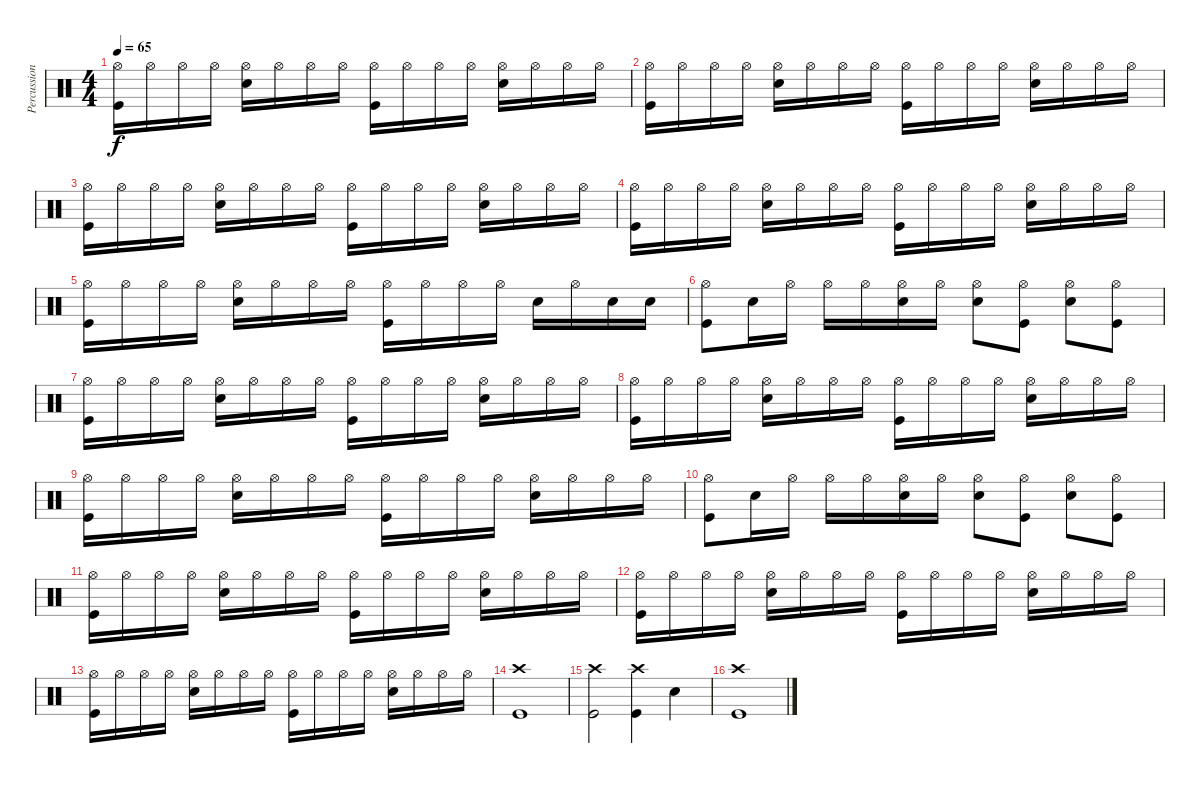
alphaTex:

\track ("Percussion" "Percussion") {instrument percussion}
\staff {score}
\articulation defaults
\ts (4 4)
\tempo 65
\clef neutral
\ks c
("Hi-Hat (open)" "Kick (hit)").16{dy f} "Hi-Hat (open)".16 "Hi-Hat (open)".16 "Hi-Hat (open)".16 ("Hi-Hat (open)" "Snare (hit) 2").16 "Hi-Hat (open)".16 "Hi-Hat (open)".16 "Hi-Hat (open)".16 ("Hi-Hat (open)" "Kick (hit)").16 "Hi-Hat (open)".16 "Hi-Hat (open)".16 "Hi-Hat (open)".16 ("Hi-Hat (open)" "Snare (hit) 2").16 "Hi-Hat (open)".16 "Hi-Hat (open)".16 "Hi-Hat (open)".16 |
("Hi-Hat (open)" "Kick (hit)").16 "Hi-Hat (open)".16 "Hi-Hat (open)".16 "Hi-Hat (open)".16 ("Hi-Hat (open)" "Snare (hit) 2").16 "Hi-Hat (open)".16 "Hi-Hat (open)".16 "Hi-Hat (open)".16 ("Hi-Hat (open)" "Kick (hit)").16 "Hi-Hat (open)".16 "Hi-Hat (open)".16 "Hi-Hat (open)".16 ("Hi-Hat (open)" "Snare (hit) 2").16 "Hi-Hat (open)".16 "Hi-Hat (open)".16 "Hi-Hat (open)".16 |
("Hi-Hat (open)" "Kick (hit)").16 "Hi-Hat (open)".16 "Hi-Hat (open)".16 "Hi-Hat (open)".16 ("Hi-Hat (open)" "Snare (hit) 2").16 "Hi-Hat (open)".16 "Hi-Hat (open)".16 "Hi-Hat (open)".16 ("Hi-Hat (open)" "Kick (hit)").16 "Hi-Hat (open)".16 "Hi-Hat (open)".16 "Hi-Hat (open)".16 ("Hi-Hat (open)" "Snare (hit) 2").16 "Hi-Hat (open)".16 "Hi-Hat (open)".16 "Hi-Hat (open)".16 |
("Hi-Hat (open)" "Kick (hit)").16 "Hi-Hat (open)".16 "Hi-Hat (open)".16 "Hi-Hat (open)".16 ("Hi-Hat (open)" "Snare (hit) 2").16 "Hi-Hat (open)".16 "Hi-Hat (open)".16 "Hi-Hat (open)".16 ("Hi-Hat (open)" "Kick (hit)").16 "Hi-Hat (open)".16 "Hi-Hat (open)".16 "Hi-Hat (open)".16 ("Hi-Hat (open)" "Snare (hit) 2").16 "Hi-Hat (open)".16 "Hi-Hat (open)".16 "Hi-Hat (open)".16 |
("Hi-Hat (open)" "Kick (hit)").16 "Hi-Hat (open)".16 "Hi-Hat (open)".16 "Hi-Hat (open)".16 ("Hi-Hat (open)" "Snare (hit) 2").16 "Hi-Hat (open)".16 "Hi-Hat (open)".16 "Hi-Hat (open)".16 ("Hi-Hat (open)" "Kick (hit)").16 "Hi-Hat (open)".16 "Hi-Hat (open)".16 "Hi-Hat (open)".16 "Snare (hit) 2".16 "Hi-Hat (open)".16 "Snare (hit) 2".16 "Snare (hit) 2".16 |
("Hi-Hat (open)" "Kick (hit)").8 "Snare (hit) 2".16 "Hi-Hat (open)".16 "Hi-Hat (open)".16 "Hi-Hat (open)".16 ("Hi-Hat (open)" "Snare (hit) 2").16 "Hi-Hat (open)".16 ("Hi-Hat (open)" "Snare (hit) 2").8 ("Hi-Hat (open)" "Kick (hit)").8 ("Hi-Hat (open)" "Snare (hit) 2").8 ("Hi-Hat (open)" "Kick (hit)").8 |
("Hi-Hat (open)" "Kick (hit)").16 "Hi-Hat (open)".16 "Hi-Hat (open)".16 "Hi-Hat (open)".16 ("Hi-Hat (open)" "Snare (hit) 2").16 "Hi-Hat (open)".16 "Hi-Hat (open)".16 "Hi-Hat (open)".16 ("Hi-Hat (open)" "Kick (hit)").16 "Hi-Hat (open)".16 "Hi-Hat (open)".16 "Hi-Hat (open)".16 ("Hi-Hat (open)" "Snare (hit) 2").16 "Hi-Hat (open)".16 "Hi-Hat (open)".16 "Hi-Hat (open)".16 |
("Hi-Hat (open)" "Kick (hit)").16 "Hi-Hat (open)".16 "Hi-Hat (open)".16 "Hi-Hat (open)".16 ("Hi-Hat (open)" "Snare (hit) 2").16 "Hi-Hat (open)".16 "Hi-Hat (open)".16 "Hi-Hat (open)".16 ("Hi-Hat (open)" "Kick (hit)").16 "Hi-Hat (open)".16 "Hi-Hat (open)".16 "Hi-Hat (open)".16 ("Hi-Hat (open)" "Snare (hit) 2").16 "Hi-Hat (open)".16 "Hi-Hat (open)".16 "Hi-Hat (open)".16 |
("Hi-Hat (open)" "Kick (hit)").16 "Hi-Hat (open)".16 "Hi-Hat (open)".16 "Hi-Hat (open)".16 ("Hi-Hat (open)" "Snare (hit) 2").16 "Hi-Hat (open)".16 "Hi-Hat (open)".16 "Hi-Hat (open)".16 ("Hi-Hat (open)" "Kick (hit)").16 "Hi-Hat (open)".16 "Hi-Hat (open)".16 "Hi-Hat (open)".16 ("Hi-Hat (open)" "Snare (hit) 2").16 "Hi-Hat (open)".16 "Hi-Hat (open)".16 "Hi-Hat (open)".16 |
("Hi-Hat (open)" "Kick (hit)").8 "Snare (hit) 2".16 "Hi-Hat (open)".16 "Hi-Hat (open)".16 "Hi-Hat (open)".16 ("Hi-Hat (open)" "Snare (hit) 2").16 "Hi-Hat (open)".16 ("Hi-Hat (open)" "Snare (hit) 2").8 ("Hi-Hat (open)" "Kick (hit)").8 ("Hi-Hat (open)" "Snare (hit) 2").8 ("Hi-Hat (open)" "Kick (hit)").8 |
("Hi-Hat (open)" "Kick (hit)").16 "Hi-Hat (open)".16 "Hi-Hat (open)".16 "Hi-Hat (open)".16 ("Hi-Hat (open)" "Snare (hit) 2").16 "Hi-Hat (open)".16 "Hi-Hat (open)".16 "Hi-Hat (open)".16 ("Hi-Hat (open)" "Kick (hit)").16 "Hi-Hat (open)".16 "Hi-Hat (open)".16 "Hi-Hat (open)".16 ("Hi-Hat (open)" "Snare (hit) 2").16 "Hi-Hat (open)".16 "Hi-Hat (open)".16 "Hi-Hat (open)".16 |
("Hi-Hat (open)" "Kick (hit)").16 "Hi-Hat (open)".16 "Hi-Hat (open)".16 "Hi-Hat (open)".16 ("Hi-Hat (open)" "Snare (hit) 2").16 "Hi-Hat (open)".16 "Hi-Hat (open)".16 "Hi-Hat (open)".16 ("Hi-Hat (open)" "Kick (hit)").16 "Hi-Hat (open)".16 "Hi-Hat (open)".16 "Hi-Hat (open)".16 ("Hi-Hat (open)" "Snare (hit) 2").16 "Hi-Hat (open)".16 "Hi-Hat (open)".16 "Hi-Hat (open)".16 |
("Hi-Hat (open)" "Kick (hit)").16 "Hi-Hat (open)".16 "Hi-Hat (open)".16 "Hi-Hat (open)".16 ("Hi-Hat (open)" "Snare (hit) 2").16 "Hi-Hat (open)".16 "Hi-Hat (open)".16 "Hi-Hat (open)".16 ("Hi-Hat (open)" "Kick (hit)").16 "Hi-Hat (open)".16 "Hi-Hat (open)".16 "Hi-Hat (open)".16 ("Hi-Hat (open)" "Snare (hit) 2").16 "Hi-Hat (open)".16 "Hi-Hat (open)".16 "Hi-Hat (open)".16 |
("Crash high (hit)" "Kick (hit)").1 |
("Crash high (hit)" "Kick (hit)").2 ("Crash high (hit)" "Kick (hit)").4 "Snare (hit) 2".4 |
("Crash high (hit)" "Kick (hit)").1
